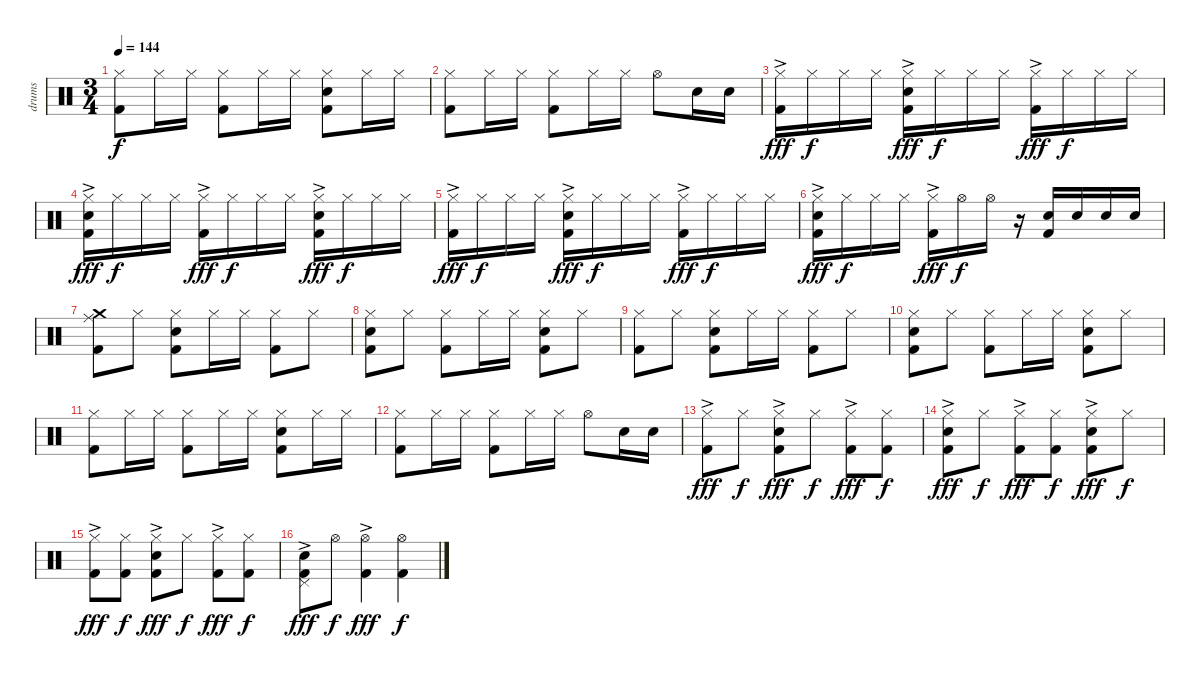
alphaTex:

\track ("drums" "drums") {instrument percussion}
\staff {score}
\articulation defaults
\ts (3 4)
\tempo 144
\clef neutral
\ks c
("Hi-Hat (closed)" "Kick (hit) 2").8{dy f} "Hi-Hat (closed)".16 "Hi-Hat (closed)".16 ("Hi-Hat (closed)" "Kick (hit) 2").8 "Hi-Hat (closed)".16 "Hi-Hat (closed)".16 ("Hi-Hat (closed)" "Snare (hit) 2" "Kick (hit) 2").8 "Hi-Hat (closed)".16 "Hi-Hat (closed)".16 |
("Hi-Hat (closed)" "Kick (hit) 2").8 "Hi-Hat (closed)".16 "Hi-Hat (closed)".16 ("Hi-Hat (closed)" "Kick (hit) 2").8 "Hi-Hat (closed)".16 "Hi-Hat (closed)".16 "Hi-Hat (open)".8 "Snare (hit) 2".16 "Snare (hit) 2".16 |
("Hi-Hat (closed)"{ac} "Kick (hit) 2").16{dy fff} "Hi-Hat (closed)".16{dy f} "Hi-Hat (closed)".16 "Hi-Hat (closed)".16 ("Hi-Hat (closed)"{ac} "Snare (hit) 2" "Kick (hit) 2").16{dy fff} "Hi-Hat (closed)".16{dy f} "Hi-Hat (closed)".16 "Hi-Hat (closed)".16 ("Hi-Hat (closed)"{ac} "Kick (hit) 2").16{dy fff} "Hi-Hat (closed)".16{dy f} "Hi-Hat (closed)".16 "Hi-Hat (closed)".16 |
("Hi-Hat (closed)"{ac} "Snare (hit) 2" "Kick (hit) 2").16{dy fff} "Hi-Hat (closed)".16{dy f} "Hi-Hat (closed)".16 "Hi-Hat (closed)".16 ("Hi-Hat (closed)"{ac} "Kick (hit) 2").16{dy fff} "Hi-Hat (closed)".16{dy f} "Hi-Hat (closed)".16 "Hi-Hat (closed)".16 ("Hi-Hat (closed)"{ac} "Snare (hit) 2" "Kick (hit) 2").16{dy fff} "Hi-Hat (closed)".16{dy f} "Hi-Hat (closed)".16 "Hi-Hat (closed)".16 |
("Hi-Hat (closed)"{ac} "Kick (hit) 2").16{dy fff} "Hi-Hat (closed)".16{dy f} "Hi-Hat (closed)".16 "Hi-Hat (closed)".16 ("Hi-Hat (closed)"{ac} "Snare (hit) 2" "Kick (hit) 2").16{dy fff} "Hi-Hat (closed)".16{dy f} "Hi-Hat (closed)".16 "Hi-Hat (closed)".16 ("Hi-Hat (closed)"{ac} "Kick (hit) 2").16{dy fff} "Hi-Hat (closed)".16{dy f} "Hi-Hat (closed)".16 "Hi-Hat (closed)".16 |
("Hi-Hat (closed)"{ac} "Snare (hit) 2" "Kick (hit) 2").16{dy fff} "Hi-Hat (closed)".16{dy f} "Hi-Hat (closed)".16 "Hi-Hat (closed)".16 ("Hi-Hat (closed)"{ac} "Kick (hit) 2").16{dy fff} "Hi-Hat (open)".16{dy f} "Hi-Hat (open)".16 r.16 ("Snare (hit) 2" "Kick (hit) 2").16 "Snare (hit) 2".16 "Snare (hit) 2".16 "Snare (hit) 2".16 |
("Crash medium (hit)" "Ride (middle)" "Kick (hit) 2").8 "Hi-Hat (closed)".8 ("Hi-Hat (closed)" "Snare (hit) 2" "Kick (hit) 2").8 "Hi-Hat (closed)".16 "Hi-Hat (closed)".16 ("Hi-Hat (closed)" "Kick (hit) 2").8 "Hi-Hat (closed)".8 |
("Hi-Hat (closed)" "Snare (hit) 2" "Kick (hit) 2").8 "Hi-Hat (closed)".8 ("Hi-Hat (closed)" "Kick (hit) 2").8 "Hi-Hat (closed)".16 "Hi-Hat (closed)".16 ("Hi-Hat (closed)" "Snare (hit) 2" "Kick (hit) 2").8 "Hi-Hat (closed)".8 |
("Hi-Hat (closed)" "Kick (hit) 2").8 "Hi-Hat (closed)".8 ("Hi-Hat (closed)" "Snare (hit) 2" "Kick (hit) 2").8 "Hi-Hat (closed)".16 "Hi-Hat (closed)".16 ("Hi-Hat (closed)" "Kick (hit) 2").8 "Hi-Hat (closed)".8 |
("Hi-Hat (closed)" "Snare (hit) 2" "Kick (hit) 2").8 "Hi-Hat (closed)".8 ("Hi-Hat (closed)" "Kick (hit) 2").8 "Hi-Hat (closed)".16 "Hi-Hat (closed)".16 ("Hi-Hat (closed)" "Snare (hit) 2" "Kick (hit) 2").8 "Hi-Hat (closed)".8 |
("Hi-Hat (closed)" "Kick (hit) 2").8 "Hi-Hat (closed)".16 "Hi-Hat (closed)".16 ("Hi-Hat (closed)" "Kick (hit) 2").8 "Hi-Hat (closed)".16 "Hi-Hat (closed)".16 ("Hi-Hat (closed)" "Snare (hit) 2" "Kick (hit) 2").8 "Hi-Hat (closed)".16 "Hi-Hat (closed)".16 |
("Hi-Hat (closed)" "Kick (hit) 2").8 "Hi-Hat (closed)".16 "Hi-Hat (closed)".16 ("Hi-Hat (closed)" "Kick (hit) 2").8 "Hi-Hat (closed)".16 "Hi-Hat (closed)".16 "Hi-Hat (open)".8 "Snare (hit) 2".16 "Snare (hit) 2".16 |
("Hi-Hat (closed)"{ac} "Kick (hit) 2").8{dy fff} "Hi-Hat (closed)".8{dy f} ("Hi-Hat (closed)"{ac} "Snare (hit) 2" "Kick (hit) 2").8{dy fff} "Hi-Hat (closed)".8{dy f} ("Hi-Hat (closed)"{ac} "Kick (hit) 2").8{dy fff} ("Hi-Hat (closed)" "Kick (hit) 2").8{dy f} |
("Hi-Hat (closed)"{ac} "Snare (hit) 2" "Kick (hit) 2").8{dy fff} "Hi-Hat (closed)".8{dy f} ("Hi-Hat (closed)"{ac} "Kick (hit) 2").8{dy fff} ("Hi-Hat (closed)" "Kick (hit) 2").8{dy f} ("Hi-Hat (closed)"{ac} "Snare (hit) 2" "Kick (hit) 2").8{dy fff} "Hi-Hat (closed)".8{dy f} |
("Hi-Hat (closed)"{ac} "Kick (hit) 2").8{dy fff} ("Hi-Hat (closed)" "Kick (hit) 2").8{dy f} ("Hi-Hat (closed)"{ac} "Snare (hit) 2" "Kick (hit) 2").8{dy fff} "Hi-Hat (closed)".8{dy f} ("Hi-Hat (closed)"{ac} "Kick (hit) 2").8{dy fff} ("Hi-Hat (closed)" "Kick (hit) 2").8{dy f} |
("Pedal Hi-Hat (hit)"{ac} "Snare (hit) 2" "Kick (hit) 2").8{dy fff} "Hi-Hat (open)".8{dy f} ("Hi-Hat (open)"{ac} "Kick (hit) 2").4{dy fff} ("Hi-Hat (open)" "Kick (hit) 2").4{dy f}
